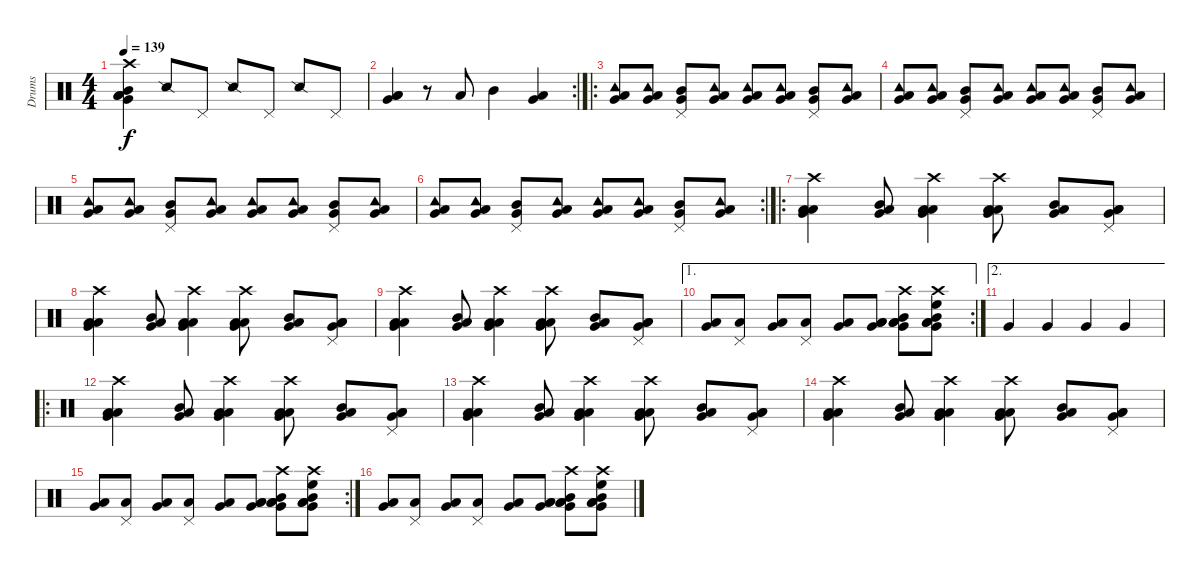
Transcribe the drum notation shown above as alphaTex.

\track ("Drums" "Drums") {instrument percussion}
\staff {score}
\articulation defaults
\ts (4 4)
\tempo 139
\clef neutral
\ks c
("Mid Tom (hit)" "Low Tom (hit)" "Very Low Tom (hit)" "Low Floor Tom (hit)" "Crash high (hit)").4{dy f} "Snare (side stick) 2".8 "Pedal Hi-Hat (hit)".8 "Snare (side stick) 2".8 "Pedal Hi-Hat (hit)".8 "Snare (side stick) 2".8 "Pedal Hi-Hat (hit)".8 |
\rc 2
("Low Tom (hit)" "Very Low Tom (hit)" "Low Floor Tom (hit)").4 r.8 "Low Tom (hit)".8 "Mid Tom (hit)".4 ("Low Tom (hit)" "Very Low Tom (hit)").4 |
\ro
("Very Low Tom (hit)" "Low Floor Tom (hit)" "Tambourine (hit)").8 ("Very Low Tom (hit)" "Low Floor Tom (hit)" "Tambourine (hit)").8 ("Mid Tom (hit)" "Pedal Hi-Hat (hit)" "Very Low Tom (hit)").8 ("Very Low Tom (hit)" "Low Floor Tom (hit)" "Tambourine (hit)").8 ("Very Low Tom (hit)" "Low Floor Tom (hit)" "Tambourine (hit)").8 ("Very Low Tom (hit)" "Low Floor Tom (hit)" "Tambourine (hit)").8 ("Mid Tom (hit)" "Pedal Hi-Hat (hit)" "Very Low Tom (hit)").8 ("Very Low Tom (hit)" "Low Floor Tom (hit)" "Tambourine (hit)").8 |
("Very Low Tom (hit)" "Low Floor Tom (hit)" "Tambourine (hit)").8 ("Very Low Tom (hit)" "Low Floor Tom (hit)" "Tambourine (hit)").8 ("Mid Tom (hit)" "Pedal Hi-Hat (hit)" "Very Low Tom (hit)").8 ("Very Low Tom (hit)" "Low Floor Tom (hit)" "Tambourine (hit)").8 ("Very Low Tom (hit)" "Low Floor Tom (hit)" "Tambourine (hit)").8 ("Very Low Tom (hit)" "Low Floor Tom (hit)" "Tambourine (hit)").8 ("Mid Tom (hit)" "Pedal Hi-Hat (hit)" "Very Low Tom (hit)").8 ("Very Low Tom (hit)" "Low Floor Tom (hit)" "Tambourine (hit)").8 |
("Very Low Tom (hit)" "Low Floor Tom (hit)" "Tambourine (hit)").8 ("Very Low Tom (hit)" "Low Floor Tom (hit)" "Tambourine (hit)").8 ("Mid Tom (hit)" "Pedal Hi-Hat (hit)" "Very Low Tom (hit)").8 ("Very Low Tom (hit)" "Low Floor Tom (hit)" "Tambourine (hit)").8 ("Very Low Tom (hit)" "Low Floor Tom (hit)" "Tambourine (hit)").8 ("Very Low Tom (hit)" "Low Floor Tom (hit)" "Tambourine (hit)").8 ("Mid Tom (hit)" "Pedal Hi-Hat (hit)" "Very Low Tom (hit)").8 ("Very Low Tom (hit)" "Low Floor Tom (hit)" "Tambourine (hit)").8 |
\rc 2
("Very Low Tom (hit)" "Low Floor Tom (hit)" "Tambourine (hit)").8 ("Very Low Tom (hit)" "Low Floor Tom (hit)" "Tambourine (hit)").8 ("Mid Tom (hit)" "Pedal Hi-Hat (hit)" "Very Low Tom (hit)").8 ("Very Low Tom (hit)" "Low Floor Tom (hit)" "Tambourine (hit)").8 ("Very Low Tom (hit)" "Low Floor Tom (hit)" "Tambourine (hit)").8 ("Very Low Tom (hit)" "Low Floor Tom (hit)" "Tambourine (hit)").8 ("Mid Tom (hit)" "Pedal Hi-Hat (hit)" "Very Low Tom (hit)").8 ("Very Low Tom (hit)" "Low Floor Tom (hit)" "Tambourine (hit)").8 |
\ro
("Low Tom (hit)" "Very Low Tom (hit)" "Low Floor Tom (hit)" "Crash high (hit)").4 ("Mid Tom (hit)" "Low Tom (hit)" "Very Low Tom (hit)").8 ("Low Tom (hit)" "Very Low Tom (hit)" "Low Floor Tom (hit)" "Crash high (hit)").4 ("Low Tom (hit)" "Very Low Tom (hit)" "Low Floor Tom (hit)" "Crash high (hit)").8 ("Mid Tom (hit)" "Low Tom (hit)" "Very Low Tom (hit)").8 ("Low Tom (hit)" "Very Low Tom (hit)" "Low Floor Tom (hit)" "Pedal Hi-Hat (hit)").8 |
("Low Tom (hit)" "Very Low Tom (hit)" "Low Floor Tom (hit)" "Crash high (hit)").4 ("Mid Tom (hit)" "Low Tom (hit)" "Very Low Tom (hit)").8 ("Low Tom (hit)" "Very Low Tom (hit)" "Low Floor Tom (hit)" "Crash high (hit)").4 ("Low Tom (hit)" "Very Low Tom (hit)" "Low Floor Tom (hit)" "Crash high (hit)").8 ("Mid Tom (hit)" "Low Tom (hit)" "Very Low Tom (hit)").8 ("Low Tom (hit)" "Very Low Tom (hit)" "Low Floor Tom (hit)" "Pedal Hi-Hat (hit)").8 |
("Low Tom (hit)" "Very Low Tom (hit)" "Low Floor Tom (hit)" "Crash high (hit)").4 ("Mid Tom (hit)" "Low Tom (hit)" "Very Low Tom (hit)").8 ("Low Tom (hit)" "Very Low Tom (hit)" "Low Floor Tom (hit)" "Crash high (hit)").4 ("Low Tom (hit)" "Very Low Tom (hit)" "Low Floor Tom (hit)" "Crash high (hit)").8 ("Mid Tom (hit)" "Low Tom (hit)" "Very Low Tom (hit)").8 ("Low Tom (hit)" "Very Low Tom (hit)" "Low Floor Tom (hit)" "Pedal Hi-Hat (hit)").8 |
\ae 1
\rc 2
("Low Tom (hit)" "Very Low Tom (hit)").8 ("Low Tom (hit)" "Pedal Hi-Hat (hit)").8 ("Low Tom (hit)" "Very Low Tom (hit)").8 ("Low Tom (hit)" "Pedal Hi-Hat (hit)").8 ("Low Tom (hit)" "Very Low Tom (hit)").8 ("Low Tom (hit)" "Very Low Tom (hit)" "Low Floor Tom (hit)").8 ("Low Tom (hit)" "Very Low Tom (hit)" "Low Floor Tom (hit)" "Mid Tom (hit)" "Crash high (hit)").8 ("Low Tom (hit)" "Very Low Tom (hit)" "Low Floor Tom (hit)" "Mid Tom (hit)" "Crash high (hit)" "High Floor Tom (hit)").8 |
\ae 2 "Very Low Tom (hit)".4 "Very Low Tom (hit)".4 "Very Low Tom (hit)".4 "Very Low Tom (hit)".4
|
\ro
("Low Tom (hit)" "Very Low Tom (hit)" "Low Floor Tom (hit)" "Crash high (hit)").4 ("Mid Tom (hit)" "Low Tom (hit)" "Very Low Tom (hit)").8 ("Low Tom (hit)" "Very Low Tom (hit)" "Low Floor Tom (hit)" "Crash high (hit)").4 ("Low Tom (hit)" "Very Low Tom (hit)" "Low Floor Tom (hit)" "Crash high (hit)").8 ("Mid Tom (hit)" "Low Tom (hit)" "Very Low Tom (hit)").8 ("Low Tom (hit)" "Very Low Tom (hit)" "Low Floor Tom (hit)" "Pedal Hi-Hat (hit)").8 |
("Low Tom (hit)" "Very Low Tom (hit)" "Low Floor Tom (hit)" "Crash high (hit)").4 ("Mid Tom (hit)" "Low Tom (hit)" "Very Low Tom (hit)").8 ("Low Tom (hit)" "Very Low Tom (hit)" "Low Floor Tom (hit)" "Crash high (hit)").4 ("Low Tom (hit)" "Very Low Tom (hit)" "Low Floor Tom (hit)" "Crash high (hit)").8 ("Mid Tom (hit)" "Low Tom (hit)" "Very Low Tom (hit)").8 ("Low Tom (hit)" "Very Low Tom (hit)" "Low Floor Tom (hit)" "Pedal Hi-Hat (hit)").8 |
("Low Tom (hit)" "Very Low Tom (hit)" "Low Floor Tom (hit)" "Crash high (hit)").4 ("Mid Tom (hit)" "Low Tom (hit)" "Very Low Tom (hit)").8 ("Low Tom (hit)" "Very Low Tom (hit)" "Low Floor Tom (hit)" "Crash high (hit)").4 ("Low Tom (hit)" "Very Low Tom (hit)" "Low Floor Tom (hit)" "Crash high (hit)").8 ("Mid Tom (hit)" "Low Tom (hit)" "Very Low Tom (hit)").8 ("Low Tom (hit)" "Very Low Tom (hit)" "Low Floor Tom (hit)" "Pedal Hi-Hat (hit)").8 |
\rc 2
("Low Tom (hit)" "Very Low Tom (hit)").8 ("Low Tom (hit)" "Pedal Hi-Hat (hit)").8 ("Low Tom (hit)" "Very Low Tom (hit)").8 ("Low Tom (hit)" "Pedal Hi-Hat (hit)").8 ("Low Tom (hit)" "Very Low Tom (hit)").8 ("Low Tom (hit)" "Very Low Tom (hit)" "Low Floor Tom (hit)").8 ("Low Tom (hit)" "Very Low Tom (hit)" "Low Floor Tom (hit)" "Mid Tom (hit)" "Crash high (hit)").8 ("Low Tom (hit)" "Very Low Tom (hit)" "Low Floor Tom (hit)" "Mid Tom (hit)" "Crash high (hit)" "High Floor Tom (hit)").8 |
("Low Tom (hit)" "Very Low Tom (hit)").8 ("Low Tom (hit)" "Pedal Hi-Hat (hit)").8 ("Low Tom (hit)" "Very Low Tom (hit)").8 ("Low Tom (hit)" "Pedal Hi-Hat (hit)").8 ("Low Tom (hit)" "Very Low Tom (hit)").8 ("Low Tom (hit)" "Very Low Tom (hit)" "Low Floor Tom (hit)").8 ("Low Tom (hit)" "Very Low Tom (hit)" "Low Floor Tom (hit)" "Mid Tom (hit)" "Crash high (hit)").8 ("Low Tom (hit)" "Very Low Tom (hit)" "Low Floor Tom (hit)" "Mid Tom (hit)" "Crash high (hit)" "High Floor Tom (hit)").8
